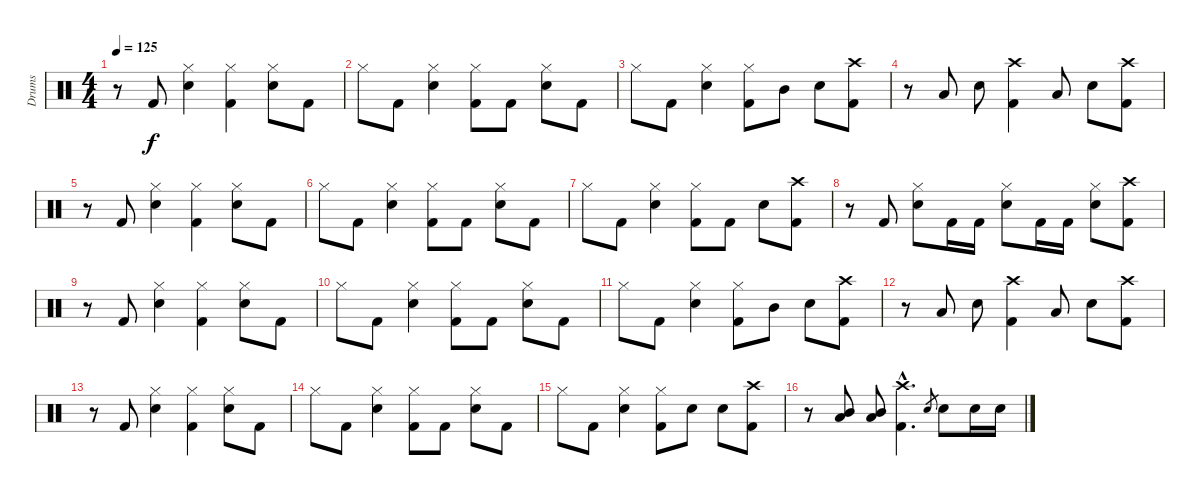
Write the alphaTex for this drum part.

\track ("Drums" "Drums") {instrument percussion}
\staff {score}
\articulation defaults
\ts (4 4)
\tempo 125
\clef neutral
\ks c
r.8{dy f} "Kick (hit) 2".8 ("Hi-Hat (closed)" "Electric Snare (hit)").4 ("Hi-Hat (closed)" "Kick (hit) 2").4 ("Hi-Hat (closed)" "Electric Snare (hit)").8 "Kick (hit) 2".8 |
"Hi-Hat (closed)".8 "Kick (hit) 2".8 ("Hi-Hat (closed)" "Electric Snare (hit)").4 ("Hi-Hat (closed)" "Kick (hit) 2").8 "Kick (hit) 2".8 ("Hi-Hat (closed)" "Electric Snare (hit)").8 "Kick (hit) 2".8 |
"Hi-Hat (closed)".8 "Kick (hit) 2".8 ("Hi-Hat (closed)" "Electric Snare (hit)").4 ("Hi-Hat (closed)" "Kick (hit) 2").8 "Mid Tom (hit)".8 "Electric Snare (hit)".8 ("Crash high (hit)" "Kick (hit) 2").8 |
r.8 "Low Tom (hit)".8 "Electric Snare (hit)".8 ("Crash high (hit)" "Kick (hit) 2").4 "Low Tom (hit)".8 "Electric Snare (hit)".8 ("Crash high (hit)" "Kick (hit) 2").8 |
r.8 "Kick (hit) 2".8 ("Hi-Hat (closed)" "Electric Snare (hit)").4 ("Hi-Hat (closed)" "Kick (hit) 2").4 ("Hi-Hat (closed)" "Electric Snare (hit)").8 "Kick (hit) 2".8 |
"Hi-Hat (closed)".8 "Kick (hit) 2".8 ("Hi-Hat (closed)" "Electric Snare (hit)").4 ("Hi-Hat (closed)" "Kick (hit) 2").8 "Kick (hit) 2".8 ("Hi-Hat (closed)" "Electric Snare (hit)").8 "Kick (hit) 2".8 |
"Hi-Hat (closed)".8 "Kick (hit) 2".8 ("Hi-Hat (closed)" "Electric Snare (hit)").4 ("Hi-Hat (closed)" "Kick (hit) 2").8 "Kick (hit) 2".8 "Electric Snare (hit)".8 ("Crash high (hit)" "Kick (hit) 2").8 |
r.8 "Kick (hit) 2".8 ("Hi-Hat (closed)" "Electric Snare (hit)").8 "Kick (hit) 2".16 "Kick (hit) 2".16 ("Hi-Hat (closed)" "Electric Snare (hit)").8 "Kick (hit) 2".16 "Kick (hit) 2".16 ("Hi-Hat (closed)" "Electric Snare (hit)").8 ("Crash high (hit)" "Kick (hit) 2").8 |
r.8 "Kick (hit) 2".8 ("Hi-Hat (closed)" "Electric Snare (hit)").4 ("Hi-Hat (closed)" "Kick (hit) 2").4 ("Hi-Hat (closed)" "Electric Snare (hit)").8 "Kick (hit) 2".8 |
"Hi-Hat (closed)".8 "Kick (hit) 2".8 ("Hi-Hat (closed)" "Electric Snare (hit)").4 ("Hi-Hat (closed)" "Kick (hit) 2").8 "Kick (hit) 2".8 ("Hi-Hat (closed)" "Electric Snare (hit)").8 "Kick (hit) 2".8 |
"Hi-Hat (closed)".8 "Kick (hit) 2".8 ("Hi-Hat (closed)" "Electric Snare (hit)").4 ("Hi-Hat (closed)" "Kick (hit) 2").8 "Mid Tom (hit)".8 "Electric Snare (hit)".8 ("Crash high (hit)" "Kick (hit) 2").8 |
r.8 "Low Tom (hit)".8 "Electric Snare (hit)".8 ("Crash high (hit)" "Kick (hit) 2").4 "Low Tom (hit)".8 "Electric Snare (hit)".8 ("Crash high (hit)" "Kick (hit) 2").8 |
r.8 "Kick (hit) 2".8 ("Hi-Hat (closed)" "Electric Snare (hit)").4 ("Hi-Hat (closed)" "Kick (hit) 2").4 ("Hi-Hat (closed)" "Electric Snare (hit)").8 "Kick (hit) 2".8 |
"Hi-Hat (closed)".8 "Kick (hit) 2".8 ("Hi-Hat (closed)" "Electric Snare (hit)").4 ("Hi-Hat (closed)" "Kick (hit) 2").8 "Kick (hit) 2".8 ("Hi-Hat (closed)" "Electric Snare (hit)").8 "Kick (hit) 2".8 |
"Hi-Hat (closed)".8 "Kick (hit) 2".8 ("Hi-Hat (closed)" "Electric Snare (hit)").4 ("Hi-Hat (closed)" "Kick (hit) 2").8 "Electric Snare (hit)".8 "Electric Snare (hit)".8 ("Crash high (hit)" "Kick (hit) 2").8 |
r.8 ("Mid Tom (hit)" "Low Tom (hit)").8 ("Mid Tom (hit)" "Low Tom (hit)").8 ("Crash high (hit)"{hac} "Kick (hit) 2"{hac}).4{d} "Electric Snare (hit)".8{gr} "Electric Snare (hit)".8 "Electric Snare (hit)".16 "Electric Snare (hit)".16
